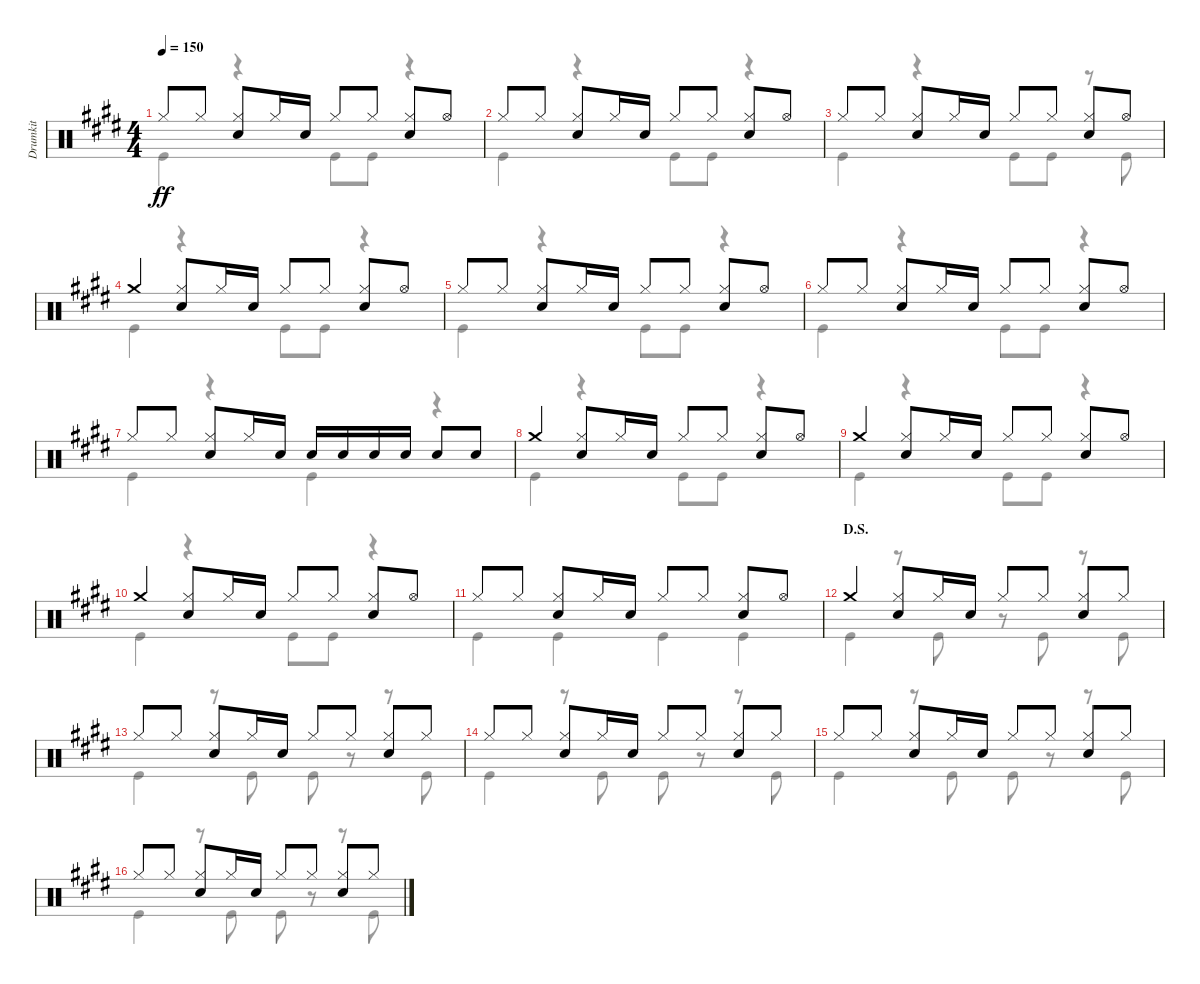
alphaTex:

\track ("Drumkit" "Drumkit") {instrument percussion}
\staff {score}
\articulation defaults
\voice
\ts (4 4)
\tempo 150
\clef neutral
\ks e "Hi-Hat (closed)".8{dy ff} "Hi-Hat (closed)".8
("Hi-Hat (closed)" "Snare (hit) 2").8 "Hi-Hat (closed)".16 "Snare (hit) 2".16 "Hi-Hat (closed)".8 "Hi-Hat (closed)".8 ("Hi-Hat (closed)" "Snare (hit) 2").8 "Hi-Hat (open)".8 |
"Hi-Hat (closed)".8 "Hi-Hat (closed)".8 ("Hi-Hat (closed)" "Snare (hit) 2").8 "Hi-Hat (closed)".16 "Snare (hit) 2".16 "Hi-Hat (closed)".8 "Hi-Hat (closed)".8 ("Hi-Hat (closed)" "Snare (hit) 2").8 "Hi-Hat (open)".8 |
"Hi-Hat (closed)".8 "Hi-Hat (closed)".8 ("Hi-Hat (closed)" "Snare (hit) 2").8 "Hi-Hat (closed)".16 "Snare (hit) 2".16 "Hi-Hat (closed)".8 "Hi-Hat (closed)".8 ("Hi-Hat (closed)" "Snare (hit) 2").8 "Hi-Hat (open)".8 |
"Crash medium (hit)".4 ("Hi-Hat (closed)" "Snare (hit) 2").8 "Hi-Hat (closed)".16 "Snare (hit) 2".16 "Hi-Hat (closed)".8 "Hi-Hat (closed)".8 ("Hi-Hat (closed)" "Snare (hit) 2").8 "Hi-Hat (open)".8 |
"Hi-Hat (closed)".8 "Hi-Hat (closed)".8 ("Hi-Hat (closed)" "Snare (hit) 2").8 "Hi-Hat (closed)".16 "Snare (hit) 2".16 "Hi-Hat (closed)".8 "Hi-Hat (closed)".8 ("Hi-Hat (closed)" "Snare (hit) 2").8 "Hi-Hat (open)".8 |
"Hi-Hat (closed)".8 "Hi-Hat (closed)".8 ("Hi-Hat (closed)" "Snare (hit) 2").8 "Hi-Hat (closed)".16 "Snare (hit) 2".16 "Hi-Hat (closed)".8 "Hi-Hat (closed)".8 ("Hi-Hat (closed)" "Snare (hit) 2").8 "Hi-Hat (open)".8 |
"Hi-Hat (closed)".8 "Hi-Hat (closed)".8 ("Hi-Hat (closed)" "Snare (hit) 2").8 "Hi-Hat (closed)".16 "Snare (hit) 2".16 "Snare (hit) 2".16 "Snare (hit) 2".16 "Snare (hit) 2".16 "Snare (hit) 2".16 "Snare (hit) 2".8 "Snare (hit) 2".8 |
"Crash medium (hit)".4 ("Hi-Hat (closed)" "Snare (hit) 2").8 "Hi-Hat (closed)".16 "Snare (hit) 2".16 "Hi-Hat (closed)".8 "Hi-Hat (closed)".8 ("Hi-Hat (closed)" "Snare (hit) 2").8 "Hi-Hat (open)".8 |
"Crash medium (hit)".4 ("Hi-Hat (closed)" "Snare (hit) 2").8 "Hi-Hat (closed)".16 "Snare (hit) 2".16 "Hi-Hat (closed)".8 "Hi-Hat (closed)".8 ("Hi-Hat (closed)" "Snare (hit) 2").8 "Hi-Hat (open)".8 |
"Crash medium (hit)".4 ("Hi-Hat (closed)" "Snare (hit) 2").8 "Hi-Hat (closed)".16 "Snare (hit) 2".16 "Hi-Hat (closed)".8 "Hi-Hat (closed)".8 ("Hi-Hat (closed)" "Snare (hit) 2").8 "Hi-Hat (open)".8 |
"Hi-Hat (closed)".8 "Hi-Hat (closed)".8 ("Hi-Hat (closed)" "Snare (hit) 2").8 "Hi-Hat (closed)".16 "Snare (hit) 2".16 "Hi-Hat (closed)".8 "Hi-Hat (closed)".8 ("Hi-Hat (closed)" "Snare (hit) 2").8 "Hi-Hat (open)".8 |
\section ("" "D.S.")
"Crash medium (hit)".4 ("Snare (hit) 2" "Hi-Hat (closed)").8 "Hi-Hat (closed)".16 "Snare (hit) 2".16 "Hi-Hat (closed)".8 "Hi-Hat (closed)".8 ("Hi-Hat (closed)" "Snare (hit) 2").8 "Hi-Hat (closed)".8 |
"Hi-Hat (closed)".8 "Hi-Hat (closed)".8 ("Hi-Hat (closed)" "Snare (hit) 2").8 "Hi-Hat (closed)".16 "Snare (hit) 2".16 "Hi-Hat (closed)".8 "Hi-Hat (closed)".8 ("Hi-Hat (closed)" "Snare (hit) 2").8 "Hi-Hat (closed)".8 |
"Hi-Hat (closed)".8 "Hi-Hat (closed)".8 ("Hi-Hat (closed)" "Snare (hit) 2").8 "Hi-Hat (closed)".16 "Snare (hit) 2".16 "Hi-Hat (closed)".8 "Hi-Hat (closed)".8 ("Hi-Hat (closed)" "Snare (hit) 2").8 "Hi-Hat (closed)".8 |
"Hi-Hat (closed)".8 "Hi-Hat (closed)".8 ("Hi-Hat (closed)" "Snare (hit) 2").8 "Hi-Hat (closed)".16 "Snare (hit) 2".16 "Hi-Hat (closed)".8 "Hi-Hat (closed)".8 ("Hi-Hat (closed)" "Snare (hit) 2").8 "Hi-Hat (closed)".8 |
"Hi-Hat (closed)".8 "Hi-Hat (closed)".8 ("Hi-Hat (closed)" "Snare (hit) 2").8 "Hi-Hat (closed)".16 "Snare (hit) 2".16 "Hi-Hat (closed)".8 "Hi-Hat (closed)".8 ("Hi-Hat (closed)" "Snare (hit) 2").8 "Hi-Hat (closed)".8
\voice
\clef neutral
\ottava regular
\simile none
\ks e "Kick (hit)".4{dy ff}
r.4 "Kick (hit)".8 "Kick (hit)".8 r.4 |
"Kick (hit)".4 r.4 "Kick (hit)".8 "Kick (hit)".8 r.4 |
"Kick (hit)".4 r.4 "Kick (hit)".8 "Kick (hit)".8 r.8 "Kick (hit)".8 |
"Kick (hit)".4 r.4 "Kick (hit)".8 "Kick (hit)".8 r.4 |
"Kick (hit)".4 r.4 "Kick (hit)".8 "Kick (hit)".8 r.4 |
"Kick (hit)".4 r.4 "Kick (hit)".8 "Kick (hit)".8 r.4 |
"Kick (hit)".4 r.4 "Kick (hit)".4 r.4 |
"Kick (hit)".4 r.4 "Kick (hit)".8 "Kick (hit)".8 r.4 |
"Kick (hit)".4 r.4 "Kick (hit)".8 "Kick (hit)".8 r.4 |
"Kick (hit)".4 r.4 "Kick (hit)".8 "Kick (hit)".8 r.4 |
"Kick (hit)".4 "Kick (hit)".4 "Kick (hit)".4 "Kick (hit)".4 |
"Kick (hit)".4 r.8 "Kick (hit)".8 r.8 "Kick (hit)".8 r.8 "Kick (hit)".8 |
"Kick (hit)".4 r.8 "Kick (hit)".8 "Kick (hit)".8 r.8 r.8 "Kick (hit)".8 |
"Kick (hit)".4 r.8 "Kick (hit)".8 "Kick (hit)".8 r.8 r.8 "Kick (hit)".8 |
"Kick (hit)".4 r.8 "Kick (hit)".8 "Kick (hit)".8 r.8 r.8 "Kick (hit)".8 |
"Kick (hit)".4 r.8 "Kick (hit)".8 "Kick (hit)".8 r.8 r.8 "Kick (hit)".8
